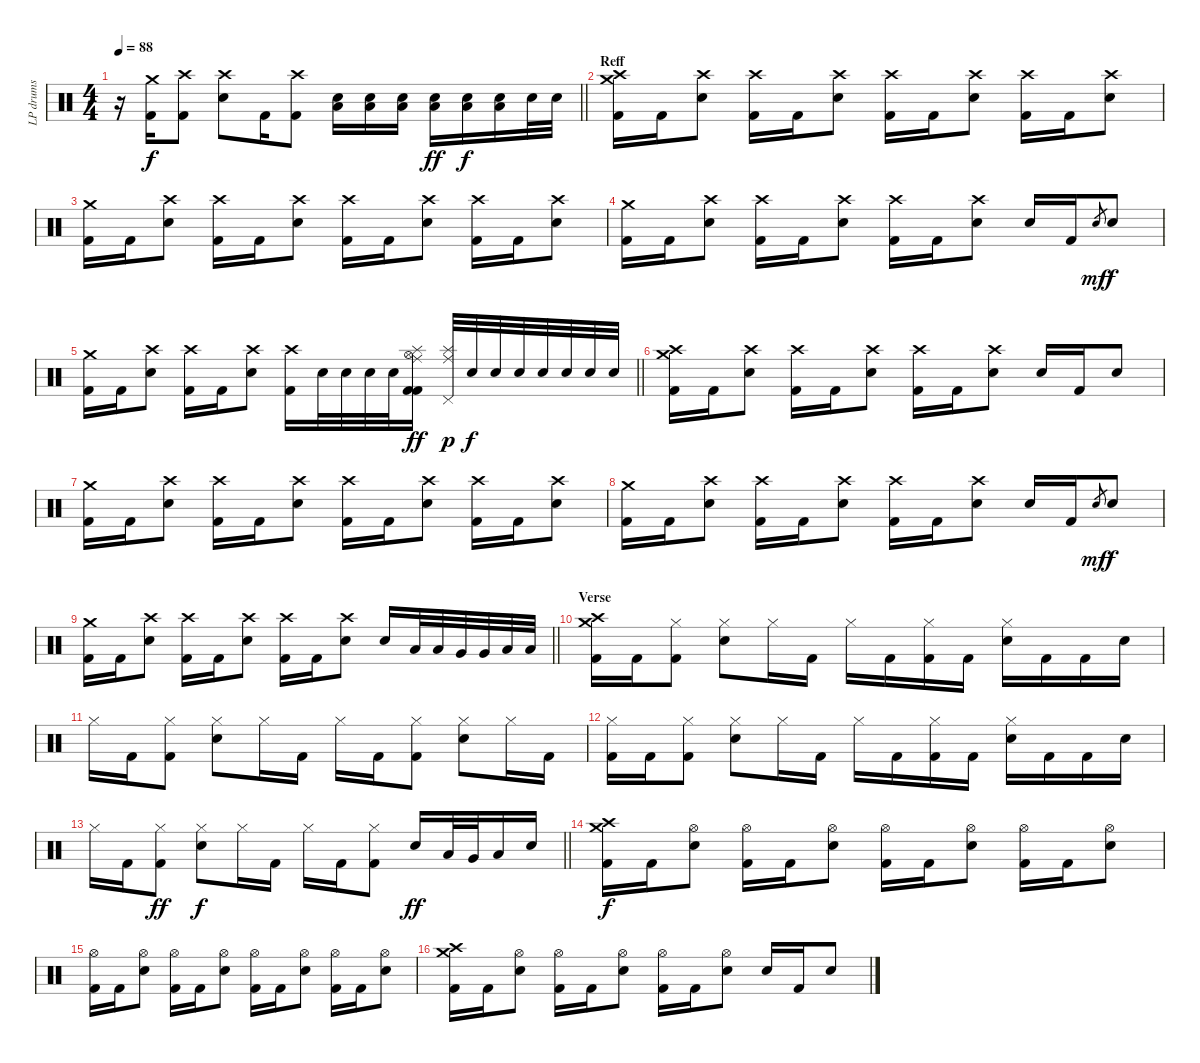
\track ("LP drums" "LP drums") {instrument percussion}
\staff {score}
\articulation defaults
\ts (4 4)
\tempo 88
\clef neutral
\barLineRight lightlight
\ks c
r.16{dy f} ("Crash medium (hit)" "Kick (hit) 2").16 ("Crash high (hit)" "Kick (hit) 2").8 ("Crash high (hit)" "Electric Snare (hit)").8 "Kick (hit) 2".16 ("Crash high (hit)" "Kick (hit) 2").8 ("Low Floor Tom (hit)" "Electric Snare (hit)").16 ("Low Floor Tom (hit)" "Electric Snare (hit)").16 ("Low Floor Tom (hit)" "Electric Snare (hit)").16 ("Low Floor Tom (hit)" "Electric Snare (hit)").16{dy ff} ("Low Floor Tom (hit)" "Electric Snare (hit)").16{dy f} ("Low Floor Tom (hit)" "Electric Snare (hit)").16 "Electric Snare (hit)".32 "Electric Snare (hit)".32 |
\section ("" "Reff")
("Crash high (hit)" "Crash medium (hit)" "Kick (hit) 2").16 "Kick (hit) 2".16 ("Crash high (hit)" "Electric Snare (hit)").8 ("Crash high (hit)" "Kick (hit) 2").16 "Kick (hit) 2".16 ("Crash high (hit)" "Electric Snare (hit)").8 ("Crash high (hit)" "Kick (hit) 2").16 "Kick (hit) 2".16 ("Crash high (hit)" "Electric Snare (hit)").8 ("Crash high (hit)" "Kick (hit) 2").16 "Kick (hit) 2".16 ("Crash high (hit)" "Electric Snare (hit)").8 |
("Crash medium (hit)" "Kick (hit) 2").16 "Kick (hit) 2".16 ("Crash high (hit)" "Electric Snare (hit)").8 ("Crash high (hit)" "Kick (hit) 2").16 "Kick (hit) 2".16 ("Crash high (hit)" "Electric Snare (hit)").8 ("Crash high (hit)" "Kick (hit) 2").16 "Kick (hit) 2".16 ("Crash high (hit)" "Electric Snare (hit)").8 ("Crash high (hit)" "Kick (hit) 2").16 "Kick (hit) 2".16 ("Crash high (hit)" "Electric Snare (hit)").8 |
("Crash medium (hit)" "Kick (hit) 2").16 "Kick (hit) 2".16 ("Crash high (hit)" "Electric Snare (hit)").8 ("Crash high (hit)" "Kick (hit) 2").16 "Kick (hit) 2".16 ("Crash high (hit)" "Electric Snare (hit)").8 ("Crash high (hit)" "Kick (hit) 2").16 "Kick (hit) 2".16 ("Crash high (hit)" "Electric Snare (hit)").8 "Electric Snare (hit)".16 "Kick (hit) 2".16 "Electric Snare (hit)".8{gr dy mf} "Electric Snare (hit)".8{dy f} |
\barLineRight lightlight
("Crash medium (hit)" "Kick (hit) 2").16 "Kick (hit) 2".16 ("Crash high (hit)" "Electric Snare (hit)").8 ("Crash high (hit)" "Kick (hit) 2").16 "Kick (hit) 2".16 ("Crash high (hit)" "Electric Snare (hit)").8 ("Crash high (hit)" "Kick (hit) 2").16 "Electric Snare (hit)".32 "Electric Snare (hit)".32 "Electric Snare (hit)".32 "Electric Snare (hit)".32 ("Kick (hit) 2" "Ride (middle)" "Splash (hit)" "Hi-Hat (open)" "Kick (hit) 2").16{dy ff} ("Ride (middle)" "Splash (hit)" "Pedal Hi-Hat (hit)").32{dy p} "Electric Snare (hit)".32{dy f} "Electric Snare (hit)".32 "Electric Snare (hit)".32 "Electric Snare (hit)".32 "Electric Snare (hit)".32 "Electric Snare (hit)".32 "Electric Snare (hit)".32 |
("Crash high (hit)" "Crash medium (hit)" "Kick (hit) 2").16 "Kick (hit) 2".16 ("Crash high (hit)" "Electric Snare (hit)").8 ("Crash high (hit)" "Kick (hit) 2").16 "Kick (hit) 2".16 ("Crash high (hit)" "Electric Snare (hit)").8 ("Crash high (hit)" "Kick (hit) 2").16 "Kick (hit) 2".16 ("Crash high (hit)" "Electric Snare (hit)").8 "Electric Snare (hit)".16 "Kick (hit) 2".16 "Electric Snare (hit)".8 |
("Crash medium (hit)" "Kick (hit) 2").16 "Kick (hit) 2".16 ("Crash high (hit)" "Electric Snare (hit)").8 ("Crash high (hit)" "Kick (hit) 2").16 "Kick (hit) 2".16 ("Crash high (hit)" "Electric Snare (hit)").8 ("Crash high (hit)" "Kick (hit) 2").16 "Kick (hit) 2".16 ("Crash high (hit)" "Electric Snare (hit)").8 ("Crash high (hit)" "Kick (hit) 2").16 "Kick (hit) 2".16 ("Crash high (hit)" "Electric Snare (hit)").8 |
("Crash medium (hit)" "Kick (hit) 2").16 "Kick (hit) 2".16 ("Crash high (hit)" "Electric Snare (hit)").8 ("Crash high (hit)" "Kick (hit) 2").16 "Kick (hit) 2".16 ("Crash high (hit)" "Electric Snare (hit)").8 ("Crash high (hit)" "Kick (hit) 2").16 "Kick (hit) 2".16 ("Crash high (hit)" "Electric Snare (hit)").8 "Electric Snare (hit)".16 "Kick (hit) 2".16 "Electric Snare (hit)".8{gr dy mf} "Electric Snare (hit)".8{dy f} |
\barLineRight lightlight
("Crash medium (hit)" "Kick (hit) 2").16 "Kick (hit) 2".16 ("Crash high (hit)" "Electric Snare (hit)").8 ("Crash high (hit)" "Kick (hit) 2").16 "Kick (hit) 2".16 ("Crash high (hit)" "Electric Snare (hit)").8 ("Crash high (hit)" "Kick (hit) 2").16 "Kick (hit) 2".16 ("Crash high (hit)" "Electric Snare (hit)").8 "Electric Snare (hit)".16 "Low Tom (hit)".32 "Low Tom (hit)".32 "Very Low Tom (hit)".32 "Very Low Tom (hit)".32 "Low Floor Tom (hit)".32 "Low Floor Tom (hit)".32 |
\section ("" "Verse")
("Crash medium (hit)" "Crash high (hit)" "Kick (hit) 2").16 "Kick (hit) 2".16 ("Hi-Hat (closed)" "Kick (hit) 2").8 ("Hi-Hat (closed)" "Electric Snare (hit)").8 "Hi-Hat (closed)".16 "Kick (hit) 2".16 "Hi-Hat (closed)".16 "Kick (hit) 2".16 ("Hi-Hat (closed)" "Kick (hit) 2").16 "Kick (hit) 2".16 ("Hi-Hat (closed)" "Electric Snare (hit)").16 "Kick (hit) 2".16 "Kick (hit) 2".16 "Electric Snare (hit)".16 |
"Hi-Hat (closed)".16 "Kick (hit) 2".16 ("Hi-Hat (closed)" "Kick (hit) 2").8 ("Hi-Hat (closed)" "Electric Snare (hit)").8 "Hi-Hat (closed)".16 "Kick (hit) 2".16 "Hi-Hat (closed)".16 "Kick (hit) 2".16 ("Hi-Hat (closed)" "Kick (hit) 2").8 ("Hi-Hat (closed)" "Electric Snare (hit)").8 "Hi-Hat (closed)".16 "Kick (hit) 2".16 |
("Hi-Hat (closed)" "Kick (hit) 2").16 "Kick (hit) 2".16 ("Hi-Hat (closed)" "Kick (hit) 2").8 ("Hi-Hat (closed)" "Electric Snare (hit)").8 "Hi-Hat (closed)".16 "Kick (hit) 2".16 "Hi-Hat (closed)".16 "Kick (hit) 2".16 ("Hi-Hat (closed)" "Kick (hit) 2").16 "Kick (hit) 2".16 ("Hi-Hat (closed)" "Electric Snare (hit)").16 "Kick (hit) 2".16 "Kick (hit) 2".16 "Electric Snare (hit)".16 |
\barLineRight lightlight "Hi-Hat (closed)".16 "Kick (hit) 2".16
("Hi-Hat (closed)" "Kick (hit) 2").8{dy ff} ("Hi-Hat (closed)" "Electric Snare (hit)").8{dy f} "Hi-Hat (closed)".16 "Kick (hit) 2".16 "Hi-Hat (closed)".16 "Kick (hit) 2".16 ("Hi-Hat (closed)" "Kick (hit) 2").8 "Electric Snare (hit)".16{dy ff} "Low Tom (hit)".32 "Very Low Tom (hit)".32 "Low Floor Tom (hit)".16 "Electric Snare (hit)".16 |
("Crash medium (hit)" "Crash high (hit)" "Kick (hit) 2").16{dy f} "Kick (hit) 2".16 ("Hi-Hat (open)" "Electric Snare (hit)").8 ("Hi-Hat (open)" "Kick (hit) 2").16 "Kick (hit) 2".16 ("Hi-Hat (open)" "Electric Snare (hit)").8 ("Hi-Hat (open)" "Kick (hit) 2").16 "Kick (hit) 2".16 ("Hi-Hat (open)" "Electric Snare (hit)").8 ("Hi-Hat (open)" "Kick (hit) 2").16 "Kick (hit) 2".16 ("Hi-Hat (open)" "Electric Snare (hit)").8 |
("Hi-Hat (open)" "Kick (hit) 2").16 "Kick (hit) 2".16 ("Hi-Hat (open)" "Electric Snare (hit)").8 ("Hi-Hat (open)" "Kick (hit) 2").16 "Kick (hit) 2".16 ("Hi-Hat (open)" "Electric Snare (hit)").8 ("Hi-Hat (open)" "Kick (hit) 2").16 "Kick (hit) 2".16 ("Hi-Hat (open)" "Electric Snare (hit)").8 ("Hi-Hat (open)" "Kick (hit) 2").16 "Kick (hit) 2".16 ("Hi-Hat (open)" "Electric Snare (hit)").8 |
("Crash medium (hit)" "Crash high (hit)" "Kick (hit) 2").16 "Kick (hit) 2".16 ("Hi-Hat (open)" "Electric Snare (hit)").8 ("Hi-Hat (open)" "Kick (hit) 2").16 "Kick (hit) 2".16 ("Hi-Hat (open)" "Electric Snare (hit)").8 ("Hi-Hat (open)" "Kick (hit) 2").16 "Kick (hit) 2".16 ("Hi-Hat (open)" "Electric Snare (hit)").8 "Electric Snare (hit)".16 "Kick (hit) 2".16 "Electric Snare (hit)".8
